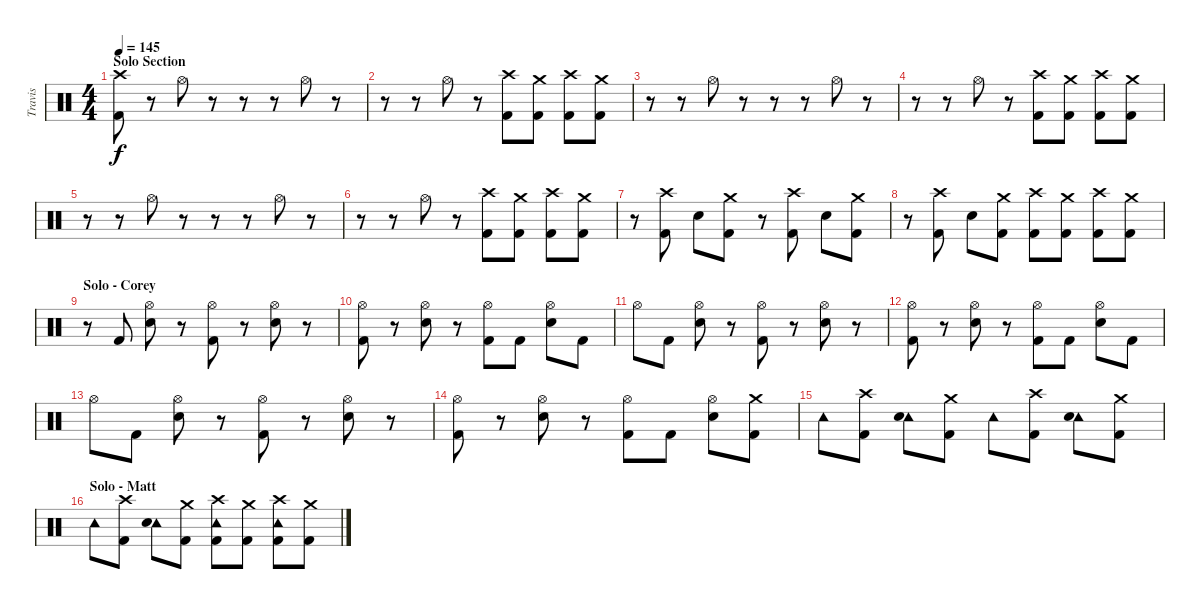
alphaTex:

\track ("Travis" "Travis") {instrument percussion}
\staff {score}
\articulation defaults
\ts (4 4)
\section ("" "Solo Section")
\tempo 145
\clef neutral
\ks c
("Crash high (hit)" "Kick (hit) 2").8{dy f} r.8 "Hi-Hat (open)".8 r.8 r.8 r.8 "Hi-Hat (open)".8 r.8 |
r.8 r.8 "Hi-Hat (open)".8 r.8 ("Crash high (hit)" "Kick (hit) 2").8 ("Crash medium (hit)" "Kick (hit) 2").8 ("Crash high (hit)" "Kick (hit) 2").8 ("Crash medium (hit)" "Kick (hit) 2").8 |
r.8 r.8 "Hi-Hat (open)".8 r.8 r.8 r.8 "Hi-Hat (open)".8 r.8 |
r.8 r.8 "Hi-Hat (open)".8 r.8 ("Crash high (hit)" "Kick (hit) 2").8 ("Crash medium (hit)" "Kick (hit) 2").8 ("Crash high (hit)" "Kick (hit) 2").8 ("Crash medium (hit)" "Kick (hit) 2").8 |
r.8 r.8 "Hi-Hat (open)".8 r.8 r.8 r.8 "Hi-Hat (open)".8 r.8 |
r.8 r.8 "Hi-Hat (open)".8 r.8 ("Crash high (hit)" "Kick (hit) 2").8 ("Crash medium (hit)" "Kick (hit) 2").8 ("Crash high (hit)" "Kick (hit) 2").8 ("Crash medium (hit)" "Kick (hit) 2").8 |
r.8 ("Crash high (hit)" "Kick (hit) 2").8 "Electric Snare (hit)".8 ("Crash medium (hit)" "Kick (hit) 2").8 r.8 ("Crash high (hit)" "Kick (hit) 2").8 "Electric Snare (hit)".8 ("Crash medium (hit)" "Kick (hit) 2").8 |
r.8 ("Crash high (hit)" "Kick (hit) 2").8 "Electric Snare (hit)".8 ("Crash medium (hit)" "Kick (hit) 2").8 ("Crash high (hit)" "Kick (hit) 2").8 ("Crash medium (hit)" "Kick (hit) 2").8 ("Crash high (hit)" "Kick (hit) 2").8 ("Crash medium (hit)" "Kick (hit) 2").8 |
\section ("" "Solo - Corey")
r.8 "Kick (hit) 2".8 ("Hi-Hat (open)" "Electric Snare (hit)").8 r.8 ("Hi-Hat (open)" "Kick (hit) 2").8 r.8 ("Hi-Hat (open)" "Electric Snare (hit)").8 r.8 |
("Hi-Hat (open)" "Kick (hit) 2").8 r.8 ("Hi-Hat (open)" "Electric Snare (hit)").8 r.8 ("Hi-Hat (open)" "Kick (hit) 2").8 "Kick (hit) 2".8 ("Hi-Hat (open)" "Electric Snare (hit)").8 "Kick (hit) 2".8 |
"Hi-Hat (open)".8 "Kick (hit) 2".8 ("Hi-Hat (open)" "Electric Snare (hit)").8 r.8 ("Hi-Hat (open)" "Kick (hit) 2").8 r.8 ("Hi-Hat (open)" "Electric Snare (hit)").8 r.8 |
("Hi-Hat (open)" "Kick (hit) 2").8 r.8 ("Hi-Hat (open)" "Electric Snare (hit)").8 r.8 ("Hi-Hat (open)" "Kick (hit) 2").8 "Kick (hit) 2".8 ("Hi-Hat (open)" "Electric Snare (hit)").8 "Kick (hit) 2".8 |
"Hi-Hat (open)".8 "Kick (hit) 2".8 ("Hi-Hat (open)" "Electric Snare (hit)").8 r.8 ("Hi-Hat (open)" "Kick (hit) 2").8 r.8 ("Hi-Hat (open)" "Electric Snare (hit)").8 r.8 |
("Hi-Hat (open)" "Kick (hit) 2").8 r.8 ("Hi-Hat (open)" "Electric Snare (hit)").8 r.8 ("Hi-Hat (open)" "Kick (hit) 2").8 "Kick (hit) 2".8 ("Hi-Hat (open)" "Electric Snare (hit)").8 ("Crash medium (hit)" "Kick (hit) 2").8 |
"Tambourine (hit)".8 ("Crash high (hit)" "Kick (hit) 2").8 ("Tambourine (hit)" "Electric Snare (hit)").8 ("Crash medium (hit)" "Kick (hit) 2").8 "Tambourine (hit)".8 ("Crash high (hit)" "Kick (hit) 2").8 ("Tambourine (hit)" "Electric Snare (hit)").8 ("Crash medium (hit)" "Kick (hit) 2").8 |
\section ("" "Solo - Matt")
"Tambourine (hit)".8 ("Crash high (hit)" "Kick (hit) 2").8 ("Tambourine (hit)" "Electric Snare (hit)").8 ("Crash medium (hit)" "Kick (hit) 2").8 ("Crash high (hit)" "Tambourine (hit)" "Kick (hit) 2").8 ("Crash medium (hit)" "Kick (hit) 2").8 ("Crash high (hit)" "Tambourine (hit)" "Kick (hit) 2").8 ("Crash medium (hit)" "Kick (hit) 2").8
